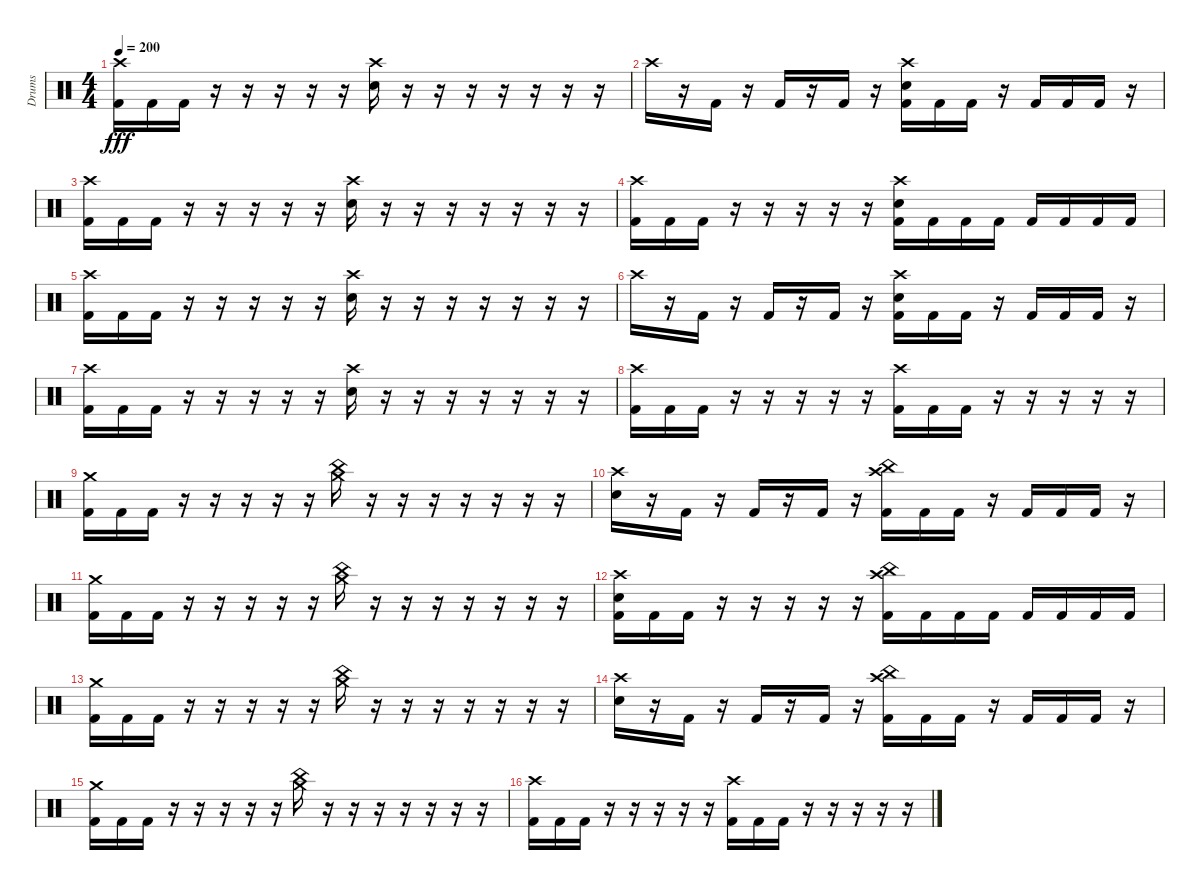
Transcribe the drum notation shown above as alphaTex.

\track ("Drums" "Drums") {instrument percussion}
\staff {score}
\articulation defaults
\ts (4 4)
\tempo 200
\clef neutral
\ks c
("Crash high (hit)" "Kick (hit) 2").16{dy fff} "Kick (hit) 2".16 "Kick (hit) 2".16 r.16 r.16 r.16 r.16 r.16 ("Crash high (hit)" "Electric Snare (hit)").16 r.16 r.16 r.16 r.16 r.16 r.16 r.16 |
"Crash high (hit)".16 r.16 "Kick (hit) 2".16 r.16 "Kick (hit) 2".16 r.16 "Kick (hit) 2".16 r.16 ("Crash high (hit)" "Electric Snare (hit)" "Kick (hit) 2").16 "Kick (hit) 2".16 "Kick (hit) 2".16 r.16 "Kick (hit) 2".16 "Kick (hit) 2".16 "Kick (hit) 2".16 r.16 |
("Crash high (hit)" "Kick (hit) 2").16 "Kick (hit) 2".16 "Kick (hit) 2".16 r.16 r.16 r.16 r.16 r.16 ("Crash high (hit)" "Electric Snare (hit)").16 r.16 r.16 r.16 r.16 r.16 r.16 r.16 |
("Crash high (hit)" "Kick (hit) 2").16 "Kick (hit) 2".16 "Kick (hit) 2".16 r.16 r.16 r.16 r.16 r.16 ("Crash high (hit)" "Electric Snare (hit)" "Kick (hit) 2").16 "Kick (hit) 2".16 "Kick (hit) 2".16 "Kick (hit) 2".16 "Kick (hit) 2".16 "Kick (hit) 2".16 "Kick (hit) 2".16 "Kick (hit) 2".16 |
("Crash high (hit)" "Kick (hit) 2").16 "Kick (hit) 2".16 "Kick (hit) 2".16 r.16 r.16 r.16 r.16 r.16 ("Crash high (hit)" "Electric Snare (hit)").16 r.16 r.16 r.16 r.16 r.16 r.16 r.16 |
"Crash high (hit)".16 r.16 "Kick (hit) 2".16 r.16 "Kick (hit) 2".16 r.16 "Kick (hit) 2".16 r.16 ("Crash high (hit)" "Electric Snare (hit)" "Kick (hit) 2").16 "Kick (hit) 2".16 "Kick (hit) 2".16 r.16 "Kick (hit) 2".16 "Kick (hit) 2".16 "Kick (hit) 2".16 r.16 |
("Crash high (hit)" "Kick (hit) 2").16 "Kick (hit) 2".16 "Kick (hit) 2".16 r.16 r.16 r.16 r.16 r.16 ("Crash high (hit)" "Electric Snare (hit)").16 r.16 r.16 r.16 r.16 r.16 r.16 r.16 |
("Crash high (hit)" "Kick (hit) 2").16 "Kick (hit) 2".16 "Kick (hit) 2".16 r.16 r.16 r.16 r.16 r.16 ("Crash high (hit)" "Kick (hit) 2").16 "Kick (hit) 2".16 "Kick (hit) 2".16 r.16 r.16 r.16 r.16 r.16 |
("Crash medium (hit)" "Kick (hit) 2").16 "Kick (hit) 2".16 "Kick (hit) 2".16 r.16 r.16 r.16 r.16 r.16 ("China (hit)" "Crash medium (hit)").16 r.16 r.16 r.16 r.16 r.16 r.16 r.16 |
("Crash high (hit)" "Electric Snare (hit)").16 r.16 "Kick (hit) 2".16 r.16 "Kick (hit) 2".16 r.16 "Kick (hit) 2".16 r.16 ("Crash high (hit)" "China (hit)" "Kick (hit) 2").16 "Kick (hit) 2".16 "Kick (hit) 2".16 r.16 "Kick (hit) 2".16 "Kick (hit) 2".16 "Kick (hit) 2".16 r.16 |
("Crash medium (hit)" "Kick (hit) 2").16 "Kick (hit) 2".16 "Kick (hit) 2".16 r.16 r.16 r.16 r.16 r.16 ("China (hit)" "Crash medium (hit)").16 r.16 r.16 r.16 r.16 r.16 r.16 r.16 |
("Crash high (hit)" "Electric Snare (hit)" "Kick (hit) 2").16 "Kick (hit) 2".16 "Kick (hit) 2".16 r.16 r.16 r.16 r.16 r.16 ("Crash high (hit)" "China (hit)" "Kick (hit) 2").16 "Kick (hit) 2".16 "Kick (hit) 2".16 "Kick (hit) 2".16 "Kick (hit) 2".16 "Kick (hit) 2".16 "Kick (hit) 2".16 "Kick (hit) 2".16 |
("Crash medium (hit)" "Kick (hit) 2").16 "Kick (hit) 2".16 "Kick (hit) 2".16 r.16 r.16 r.16 r.16 r.16 ("China (hit)" "Crash medium (hit)").16 r.16 r.16 r.16 r.16 r.16 r.16 r.16 |
("Crash high (hit)" "Electric Snare (hit)").16 r.16 "Kick (hit) 2".16 r.16 "Kick (hit) 2".16 r.16 "Kick (hit) 2".16 r.16 ("Crash high (hit)" "China (hit)" "Kick (hit) 2").16 "Kick (hit) 2".16 "Kick (hit) 2".16 r.16 "Kick (hit) 2".16 "Kick (hit) 2".16 "Kick (hit) 2".16 r.16 |
("Crash medium (hit)" "Kick (hit) 2").16 "Kick (hit) 2".16 "Kick (hit) 2".16 r.16 r.16 r.16 r.16 r.16 ("China (hit)" "Crash medium (hit)").16 r.16 r.16 r.16 r.16 r.16 r.16 r.16 |
("Crash high (hit)" "Kick (hit) 2").16 "Kick (hit) 2".16 "Kick (hit) 2".16 r.16 r.16 r.16 r.16 r.16 ("Crash high (hit)" "Kick (hit) 2").16 "Kick (hit) 2".16 "Kick (hit) 2".16 r.16 r.16 r.16 r.16 r.16
